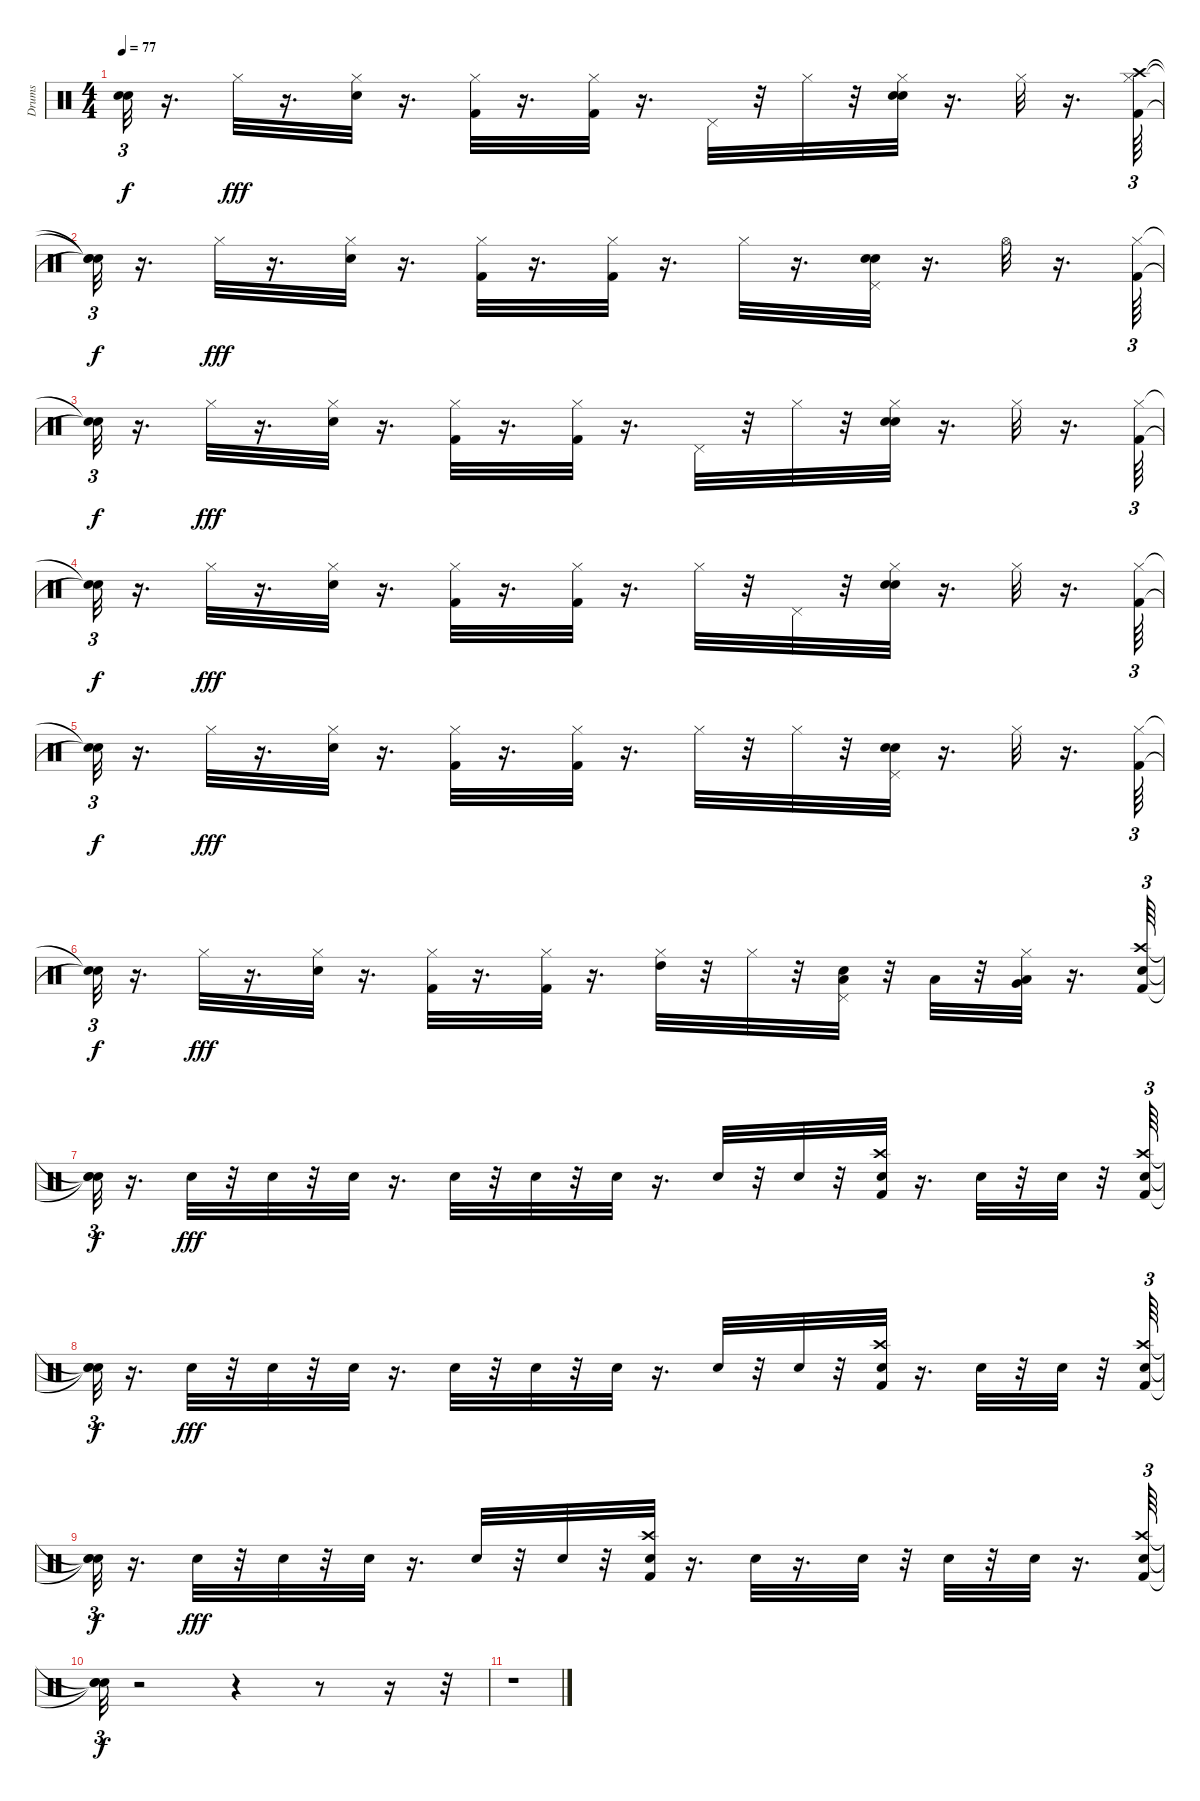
\track ("Drums   " "Drums   ") {instrument percussion}
\staff {score}
\articulation defaults
\ts (4 4)
\tempo 77
\clef neutral
\ks c
("Snare (hit)"{t} "Snare (hit)"{t}).32{tu (3 2) dy f} r.16{d} "Hi-Hat (closed)".32{dy fff} r.16{d} ("Snare (hit) 2" "Hi-Hat (closed)").32 r.16{d} ("Kick (hit) 2" "Hi-Hat (closed)").32 r.16{d} ("Kick (hit) 2" "Hi-Hat (closed)").32 r.16{d} "Pedal Hi-Hat (hit)".32 r.32 "Hi-Hat (closed)".32 r.32 ("Snare (hit) 2" "Hand Clap (hit)" "Hi-Hat (closed)").32 r.16{d} "Hi-Hat (closed)".32 r.16{d} ("Kick (hit) 2" "Hi-Hat (closed)" "Crash high (hit)").64{tu (3 2)} |
("Snare (hit)"{t} "Snare (hit)"{t} "Snare (hit)"{t}).32{tu (3 2) dy f} r.16{d} "Hi-Hat (closed)".32{dy fff} r.16{d} ("Snare (hit) 2" "Hi-Hat (closed)").32 r.16{d} ("Kick (hit) 2" "Hi-Hat (closed)").32 r.16{d} ("Kick (hit) 2" "Hi-Hat (closed)").32 r.16{d} "Hi-Hat (closed)".32 r.16{d} ("Snare (hit) 2" "Hand Clap (hit)" "Pedal Hi-Hat (hit)").32 r.16{d} "Hi-Hat (open)".32 r.16{d} ("Kick (hit) 2" "Hi-Hat (closed)").64{tu (3 2)} |
("Snare (hit)"{t} "Snare (hit)"{t}).32{tu (3 2) dy f} r.16{d} "Hi-Hat (closed)".32{dy fff} r.16{d} ("Snare (hit) 2" "Hi-Hat (closed)").32 r.16{d} ("Kick (hit) 2" "Hi-Hat (closed)").32 r.16{d} ("Kick (hit) 2" "Hi-Hat (closed)").32 r.16{d} "Pedal Hi-Hat (hit)".32 r.32 "Hi-Hat (closed)".32 r.32 ("Snare (hit) 2" "Hand Clap (hit)" "Hi-Hat (closed)").32 r.16{d} "Hi-Hat (closed)".32 r.16{d} ("Kick (hit) 2" "Hi-Hat (closed)").64{tu (3 2)} |
("Snare (hit)"{t} "Snare (hit)"{t}).32{tu (3 2) dy f} r.16{d} "Hi-Hat (closed)".32{dy fff} r.16{d} ("Snare (hit) 2" "Hi-Hat (closed)").32 r.16{d} ("Kick (hit) 2" "Hi-Hat (closed)").32 r.16{d} ("Kick (hit) 2" "Hi-Hat (closed)").32 r.16{d} "Hi-Hat (closed)".32 r.32 "Pedal Hi-Hat (hit)".32 r.32 ("Snare (hit) 2" "Hand Clap (hit)" "Hi-Hat (closed)").32 r.16{d} "Hi-Hat (closed)".32 r.16{d} ("Kick (hit) 2" "Hi-Hat (closed)").64{tu (3 2)} |
("Snare (hit)"{t} "Snare (hit)"{t}).32{tu (3 2) dy f} r.16{d} "Hi-Hat (closed)".32{dy fff} r.16{d} ("Snare (hit) 2" "Hi-Hat (closed)").32 r.16{d} ("Kick (hit) 2" "Hi-Hat (closed)").32 r.16{d} ("Kick (hit) 2" "Hi-Hat (closed)").32 r.16{d} "Hi-Hat (closed)".32 r.32 "Hi-Hat (closed)".32 r.32 ("Snare (hit) 2" "Hand Clap (hit)" "Pedal Hi-Hat (hit)").32 r.16{d} "Hi-Hat (closed)".32 r.16{d} ("Kick (hit) 2" "Hi-Hat (closed)").64{tu (3 2)} |
("Snare (hit)"{t} "Snare (hit)"{t}).32{tu (3 2) dy f} r.16{d} "Hi-Hat (closed)".32{dy fff} r.16{d} ("Snare (hit) 2" "Hi-Hat (closed)").32 r.16{d} ("Kick (hit) 2" "Hi-Hat (closed)").32 r.16{d} ("Kick (hit) 2" "Hi-Hat (closed)").32 r.16{d} ("Hi-Hat (closed)" "High Tom (hit)").32 r.32 "Hi-Hat (closed)".32 r.32 ("Hand Clap (hit)" "Pedal Hi-Hat (hit)" "Low Tom (hit)").32 r.32 "Low Tom (hit)".32 r.32 ("Hi-Hat (closed)" "Very Low Tom (hit)" "Low Tom (hit)").32 r.16{d} ("Kick (hit) 2" "Electric Snare (hit)" "Crash high (hit)").64{tu (3 2)} |
("Snare (hit)"{t} "Snare (hit)"{t} "Snare (hit)"{t}).32{tu (3 2) dy f} r.16{d} "Electric Snare (hit)".32{dy fff} r.32 "Electric Snare (hit)".32 r.32 "Electric Snare (hit)".32 r.16{d} "Electric Snare (hit)".32 r.32 "Electric Snare (hit)".32 r.32 "Electric Snare (hit)".32 r.16{d} "Electric Snare (hit)".32 r.32 "Electric Snare (hit)".32 r.32 ("Kick (hit) 2" "Electric Snare (hit)" "Crash high (hit)").32 r.16{d} "Electric Snare (hit)".32 r.32 "Electric Snare (hit)".32 r.32 ("Kick (hit) 2" "Electric Snare (hit)" "Crash high (hit)").64{tu (3 2)} |
("Snare (hit)"{t} "Snare (hit)"{t} "Snare (hit)"{t}).32{tu (3 2) dy f} r.16{d} "Electric Snare (hit)".32{dy fff} r.32 "Electric Snare (hit)".32 r.32 "Electric Snare (hit)".32 r.16{d} "Electric Snare (hit)".32 r.32 "Electric Snare (hit)".32 r.32 "Electric Snare (hit)".32 r.16{d} "Electric Snare (hit)".32 r.32 "Electric Snare (hit)".32 r.32 ("Kick (hit) 2" "Electric Snare (hit)" "Crash high (hit)").32 r.16{d} "Electric Snare (hit)".32 r.32 "Electric Snare (hit)".32 r.32 ("Kick (hit) 2" "Electric Snare (hit)" "Crash high (hit)").64{tu (3 2)} |
("Snare (hit)"{t} "Snare (hit)"{t} "Snare (hit)"{t}).32{tu (3 2) dy f} r.16{d} "Electric Snare (hit)".32{dy fff} r.32 "Electric Snare (hit)".32 r.32 "Electric Snare (hit)".32 r.16{d} "Electric Snare (hit)".32 r.32 "Electric Snare (hit)".32 r.32 ("Kick (hit) 2" "Electric Snare (hit)" "Crash high (hit)").32 r.16{d} "Electric Snare (hit)".32 r.16{d} "Electric Snare (hit)".32 r.32 "Electric Snare (hit)".32 r.32 "Electric Snare (hit)".32 r.16{d} ("Kick (hit) 2" "Electric Snare (hit)" "Crash high (hit)").64{tu (3 2)} |
("Snare (hit)"{t} "Snare (hit)"{t} "Snare (hit)"{t}).32{tu (3 2) dy f} r.2 r.4 r.8 r.16 r.32 |
r.1
